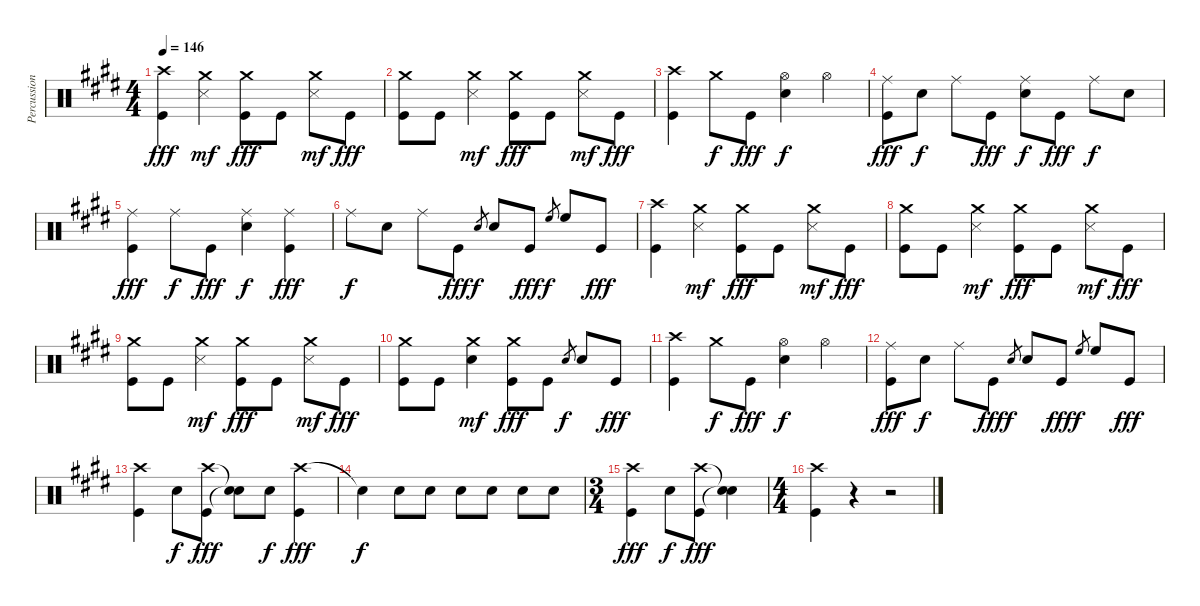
\track ("Percussion" "Percussion") {instrument percussion}
\staff {score}
\articulation defaults
\ts (4 4)
\tempo 146
\clef neutral
\ks e
("Crash high (hit)" "Kick (hit)").4{dy fff} ("Crash medium (hit)" "Snare (side stick) 3").4{dy mf} ("Crash medium (hit)" "Kick (hit)").8{dy fff} "Kick (hit)".8 ("Crash medium (hit)" "Snare (side stick) 3").8{dy mf} "Kick (hit)".8{dy fff} |
("Crash medium (hit)" "Kick (hit)").8 "Kick (hit)".8 ("Crash medium (hit)" "Snare (side stick) 3").4{dy mf} ("Crash medium (hit)" "Kick (hit)").8{dy fff} "Kick (hit)".8 ("Crash medium (hit)" "Snare (side stick) 3").8{dy mf} "Kick (hit)".8{dy fff} |
("Crash high (hit)" "Kick (hit)").4 "Crash medium (hit)".8{dy f} "Kick (hit)".8{dy fff} ("Hi-Hat (open)" "Snare (hit) 2").4{dy f} "Hi-Hat (open)".4 |
("Ride (middle)" "Kick (hit)").8{dy fff} "Snare (hit) 2".8{dy f} "Ride (middle)".8 "Kick (hit)".8{dy fff} ("Ride (middle)" "Snare (hit) 2").8{dy f} "Kick (hit)".8{dy fff} "Ride (middle)".8{dy f} "Snare (hit) 2".8 |
("Ride (middle)" "Kick (hit)").4{dy fff} "Ride (middle)".8{dy f} "Kick (hit)".8{dy fff} ("Ride (middle)" "Snare (hit) 2").4{dy f} ("Ride (middle)" "Kick (hit)").4{dy fff} |
"Ride (middle)".8{dy f} "Snare (hit) 2".8 "Ride (middle)".8 "Kick (hit)".8{dy fff} "Snare (hit) 2".8{gr dy f} "Snare (hit) 2".8 "Kick (hit)".8{dy fff} "High Floor Tom (hit)".8{gr dy f} "High Floor Tom (hit)".8 "Kick (hit)".8{dy fff} |
("Crash high (hit)" "Kick (hit)").4 ("Crash medium (hit)" "Snare (side stick) 3").4{dy mf} ("Crash medium (hit)" "Kick (hit)").8{dy fff} "Kick (hit)".8 ("Crash medium (hit)" "Snare (side stick) 3").8{dy mf} "Kick (hit)".8{dy fff} |
("Crash medium (hit)" "Kick (hit)").8 "Kick (hit)".8 ("Crash medium (hit)" "Snare (side stick) 3").4{dy mf} ("Crash medium (hit)" "Kick (hit)").8{dy fff} "Kick (hit)".8 ("Crash medium (hit)" "Snare (side stick) 3").8{dy mf} "Kick (hit)".8{dy fff} |
("Crash medium (hit)" "Kick (hit)").8 "Kick (hit)".8 ("Crash medium (hit)" "Snare (side stick) 3").4{dy mf} ("Crash medium (hit)" "Kick (hit)").8{dy fff} "Kick (hit)".8 ("Crash medium (hit)" "Snare (side stick) 3").8{dy mf} "Kick (hit)".8{dy fff} |
("Crash medium (hit)" "Kick (hit)").8 "Kick (hit)".8 ("Crash medium (hit)" "Snare (hit) 2").4{dy mf} ("Crash medium (hit)" "Kick (hit)").8{dy fff} "Kick (hit)".8 "Snare (hit) 2".8{gr dy f} "Snare (hit) 2".8 "Kick (hit)".8{dy fff} |
("Crash high (hit)" "Kick (hit)").4 "Crash medium (hit)".8{dy f} "Kick (hit)".8{dy fff} ("Hi-Hat (open)" "Snare (hit) 2").4{dy f} "Hi-Hat (open)".4 |
("Ride (middle)" "Kick (hit)").8{dy fff} "Snare (hit) 2".8{dy f} "Ride (middle)".8 "Kick (hit)".8{dy fff} "Snare (hit) 2".8{gr dy f} "Snare (hit) 2".8 "Kick (hit)".8{dy fff} "High Floor Tom (hit)".8{gr dy f} "High Floor Tom (hit)".8 "Kick (hit)".8{dy fff} |
("Crash high (hit)" "Kick (hit)").4 "Snare (hit) 2".8{dy f} ("Crash high (hit)" "Kick (hit)").8{dy fff} ("Snare (hit)"{t} "Snare (hit)"{t}).8 "Snare (hit) 2".8{dy f} ("Crash high (hit)" "Kick (hit)").4{dy fff} |
"Snare (hit)"{t}.4{dy f} "Snare (hit) 2".8 "Snare (hit) 2".8 "Snare (hit) 2".8 "Snare (hit) 2".8 "Snare (hit) 2".8 "Snare (hit) 2".8 |
\ts (3 4)
("Crash high (hit)" "Kick (hit)").4{dy fff} "Snare (hit) 2".8{dy f} ("Crash high (hit)" "Kick (hit)").8{dy fff} ("Snare (hit)"{t} "Snare (hit)"{t}).4 |
\ts (4 4)
("Crash high (hit)" "Kick (hit)").4 r.4 r.2
